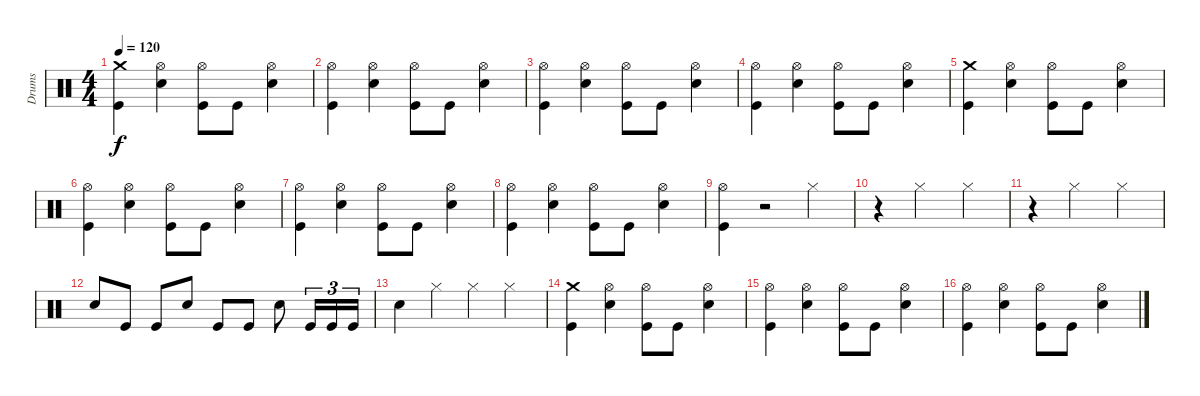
\track ("Drums" "Drums") {instrument percussion}
\staff {score}
\articulation defaults
\ts (4 4)
\tempo 120
\clef neutral
\ks c
("Crash medium (hit)" "Kick (hit)").4{dy f} ("Hi-Hat (open)" "Snare (hit) 2").4 ("Hi-Hat (open)" "Kick (hit)").8 "Kick (hit)".8 ("Hi-Hat (open)" "Snare (hit) 2").4 |
("Hi-Hat (open)" "Kick (hit)").4 ("Hi-Hat (open)" "Snare (hit) 2").4 ("Hi-Hat (open)" "Kick (hit)").8 "Kick (hit)".8 ("Hi-Hat (open)" "Snare (hit) 2").4 |
("Hi-Hat (open)" "Kick (hit)").4 ("Hi-Hat (open)" "Snare (hit) 2").4 ("Hi-Hat (open)" "Kick (hit)").8 "Kick (hit)".8 ("Hi-Hat (open)" "Snare (hit) 2").4 |
("Hi-Hat (open)" "Kick (hit)").4 ("Hi-Hat (open)" "Snare (hit) 2").4 ("Hi-Hat (open)" "Kick (hit)").8 "Kick (hit)".8 ("Hi-Hat (open)" "Snare (hit) 2").4 |
("Crash medium (hit)" "Kick (hit)").4 ("Hi-Hat (open)" "Snare (hit) 2").4 ("Hi-Hat (open)" "Kick (hit)").8 "Kick (hit)".8 ("Hi-Hat (open)" "Snare (hit) 2").4 |
("Hi-Hat (open)" "Kick (hit)").4 ("Hi-Hat (open)" "Snare (hit) 2").4 ("Hi-Hat (open)" "Kick (hit)").8 "Kick (hit)".8 ("Hi-Hat (open)" "Snare (hit) 2").4 |
("Hi-Hat (open)" "Kick (hit)").4 ("Hi-Hat (open)" "Snare (hit) 2").4 ("Hi-Hat (open)" "Kick (hit)").8 "Kick (hit)".8 ("Hi-Hat (open)" "Snare (hit) 2").4 |
("Hi-Hat (open)" "Kick (hit)").4 ("Hi-Hat (open)" "Snare (hit) 2").4 ("Hi-Hat (open)" "Kick (hit)").8 "Kick (hit)".8 ("Hi-Hat (open)" "Snare (hit) 2").4 |
("Hi-Hat (open)" "Kick (hit)").4 r.2 "Hi-Hat (closed)".4 |
r.4 "Hi-Hat (closed)".2 "Hi-Hat (closed)".4 |
r.4 "Hi-Hat (closed)".2 "Hi-Hat (closed)".4 |
"Snare (hit) 2".8 "Kick (hit)".8 "Kick (hit)".8 "Snare (hit) 2".8 "Kick (hit)".8 "Kick (hit)".8 "Snare (hit) 2".8 "Kick (hit)".16{tu (3 2)} "Kick (hit)".16{tu (3 2)} "Kick (hit)".16{tu (3 2)} |
"Snare (hit) 2".4 "Hi-Hat (closed)".4 "Hi-Hat (closed)".4 "Hi-Hat (closed)".4 |
("Crash medium (hit)" "Kick (hit)").4 ("Hi-Hat (open)" "Snare (hit) 2").4 ("Hi-Hat (open)" "Kick (hit)").8 "Kick (hit)".8 ("Hi-Hat (open)" "Snare (hit) 2").4 |
("Hi-Hat (open)" "Kick (hit)").4 ("Hi-Hat (open)" "Snare (hit) 2").4 ("Hi-Hat (open)" "Kick (hit)").8 "Kick (hit)".8 ("Hi-Hat (open)" "Snare (hit) 2").4 |
("Hi-Hat (open)" "Kick (hit)").4 ("Hi-Hat (open)" "Snare (hit) 2").4 ("Hi-Hat (open)" "Kick (hit)").8 "Kick (hit)".8 ("Hi-Hat (open)" "Snare (hit) 2").4
